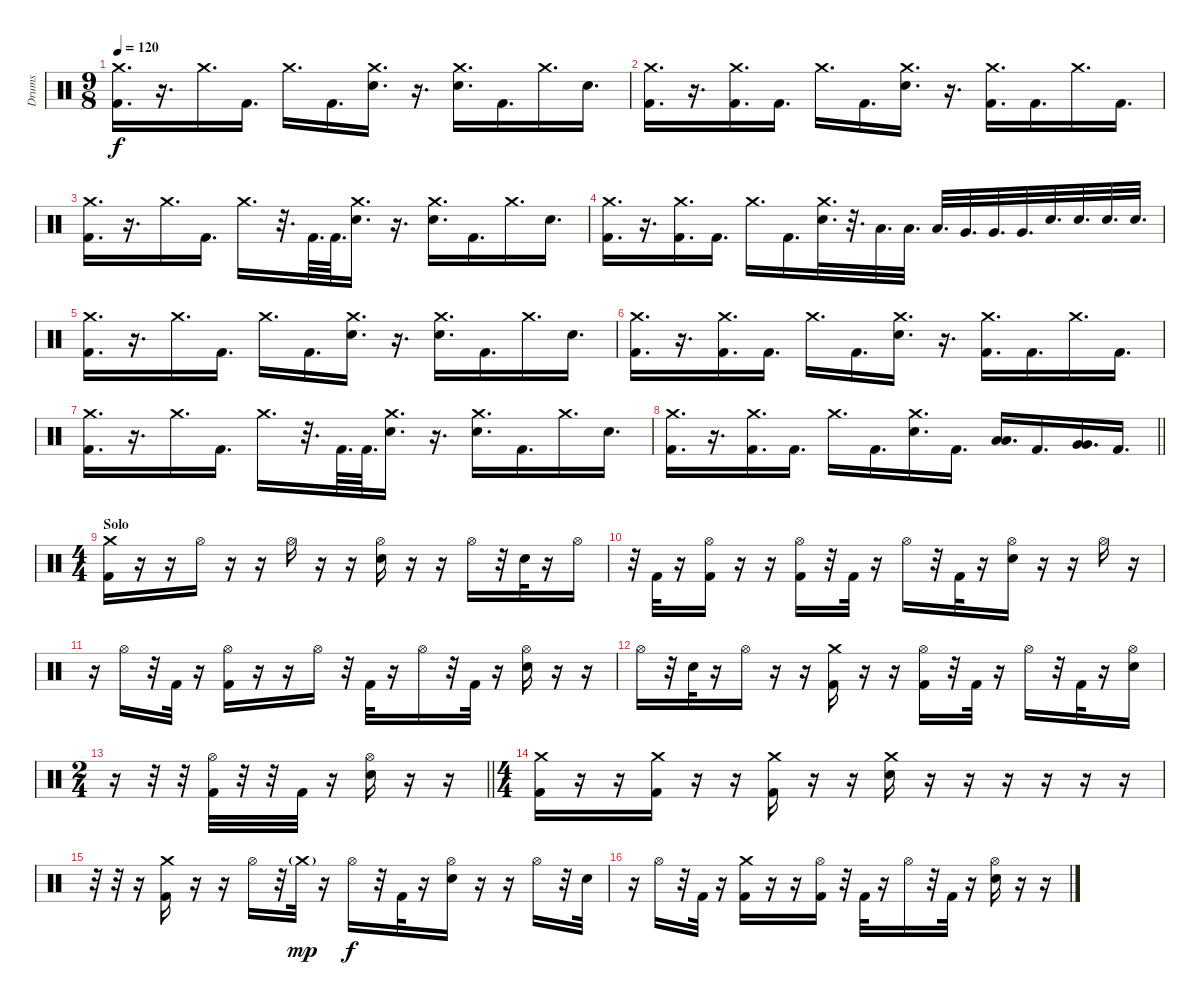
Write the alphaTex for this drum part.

\track ("Drums" "Drums") {instrument percussion}
\staff {score}
\articulation defaults
\ts (9 8)
\section ("" "")
\tempo 120
\clef neutral
\ks c
("Crash medium (hit)" "Kick (hit) 2").16{d dy f} r.16{d} "Crash medium (hit)".16{d} "Kick (hit) 2".16{d} "Crash medium (hit)".16{d} "Kick (hit) 2".16{d} ("Crash medium (hit)" "Electric Snare (hit)").16{d} r.16{d} ("Crash medium (hit)" "Electric Snare (hit)").16{d} "Kick (hit) 2".16{d} "Crash medium (hit)".16{d} "Electric Snare (hit)".16{d} |
("Crash medium (hit)" "Kick (hit) 2").16{d} r.16{d} ("Crash medium (hit)" "Kick (hit) 2").16{d} "Kick (hit) 2".16{d} "Crash medium (hit)".16{d} "Kick (hit) 2".16{d} ("Crash medium (hit)" "Electric Snare (hit)").16{d} r.16{d} ("Crash medium (hit)" "Kick (hit) 2").16{d} "Kick (hit) 2".16{d} "Crash medium (hit)".16{d} "Kick (hit) 2".16{d} |
("Crash medium (hit)" "Kick (hit) 2").16{d} r.16{d} "Crash medium (hit)".16{d} "Kick (hit) 2".16{d} "Crash medium (hit)".16{d} r.32{d} "Kick (hit) 2".64{d} "Kick (hit) 2".64{d} ("Crash medium (hit)" "Electric Snare (hit)").16{d} r.16{d} ("Crash medium (hit)" "Electric Snare (hit)").16{d} "Kick (hit) 2".16{d} "Crash medium (hit)".16{d} "Electric Snare (hit)".16{d} |
("Crash medium (hit)" "Kick (hit) 2").16{d} r.16{d} ("Crash medium (hit)" "Kick (hit) 2").16{d} "Kick (hit) 2".16{d} "Crash medium (hit)".16{d} "Kick (hit) 2".16{d} ("Crash medium (hit)" "Electric Snare (hit)").32{d} r.32{d} "Low Tom (hit)".32{d} "Low Tom (hit)".32{d} "Low Tom (hit)".32{d} "Very Low Tom (hit)".32{d} "Very Low Tom (hit)".32{d} "Very Low Tom (hit)".32{d} "Electric Snare (hit)".32{d} "Electric Snare (hit)".32{d} "Electric Snare (hit)".32{d} "Electric Snare (hit)".32{d} |
("Crash medium (hit)" "Kick (hit) 2").16{d} r.16{d} "Crash medium (hit)".16{d} "Kick (hit) 2".16{d} "Crash medium (hit)".16{d} "Kick (hit) 2".16{d} ("Crash medium (hit)" "Electric Snare (hit)").16{d} r.16{d} ("Crash medium (hit)" "Electric Snare (hit)").16{d} "Kick (hit) 2".16{d} "Crash medium (hit)".16{d} "Electric Snare (hit)".16{d} |
("Crash medium (hit)" "Kick (hit) 2").16{d} r.16{d} ("Crash medium (hit)" "Kick (hit) 2").16{d} "Kick (hit) 2".16{d} "Crash medium (hit)".16{d} "Kick (hit) 2".16{d} ("Crash medium (hit)" "Electric Snare (hit)").16{d} r.16{d} ("Crash medium (hit)" "Kick (hit) 2").16{d} "Kick (hit) 2".16{d} "Crash medium (hit)".16{d} "Kick (hit) 2".16{d} |
("Crash medium (hit)" "Kick (hit) 2").16{d} r.16{d} "Crash medium (hit)".16{d} "Kick (hit) 2".16{d} "Crash medium (hit)".16{d} r.32{d} "Kick (hit) 2".64{d} "Kick (hit) 2".64{d} ("Crash medium (hit)" "Electric Snare (hit)").16{d} r.16{d} ("Crash medium (hit)" "Electric Snare (hit)").16{d} "Kick (hit) 2".16{d} "Crash medium (hit)".16{d} "Electric Snare (hit)".16{d} |
\barLineRight lightlight
("Crash medium (hit)" "Kick (hit) 2").16{d} r.16{d} ("Crash medium (hit)" "Kick (hit) 2").16{d} "Kick (hit) 2".16{d} "Crash medium (hit)".16{d} "Kick (hit) 2".16{d} ("Crash medium (hit)" "Electric Snare (hit)").16{d} "Kick (hit) 2".16{d} ("Low Tom (hit)" "Low Tom (hit)").16{d} "Kick (hit) 2".16{d} ("Very Low Tom (hit)" "Very Low Tom (hit)").16{d} "Kick (hit) 2".16{d} |
\ts (4 4)
\section ("" "Solo")
("Crash medium (hit)" "Kick (hit) 2").16 r.16 r.16 "Hi-Hat (open)".16 r.16 r.16 "Hi-Hat (open)".16 r.16 r.16 ("Hi-Hat (open)" "Electric Snare (hit)").16 r.16 r.16 "Hi-Hat (open)".16 r.32 "Electric Snare (hit)".32 r.16 "Hi-Hat (open)".16 |
r.32 "Kick (hit) 2".32 r.16 ("Hi-Hat (open)" "Kick (hit) 2").16 r.16 r.16 ("Hi-Hat (open)" "Kick (hit) 2").16 r.32 "Kick (hit) 2".32 r.16 "Hi-Hat (open)".16 r.32 "Kick (hit) 2".32 r.16 ("Hi-Hat (open)" "Electric Snare (hit)").16 r.16 r.16 "Hi-Hat (open)".16 r.16 |
r.16 "Hi-Hat (open)".16 r.32 "Kick (hit) 2".32 r.16 ("Hi-Hat (open)" "Kick (hit) 2").16 r.16 r.16 "Hi-Hat (open)".16 r.32 "Kick (hit) 2".32 r.16 "Hi-Hat (open)".16 r.32 "Kick (hit) 2".32 r.16 ("Hi-Hat (open)" "Electric Snare (hit)").16 r.16 r.16 |
"Hi-Hat (open)".16 r.32 "Electric Snare (hit)".32 r.16 "Hi-Hat (open)".16 r.16 r.16 ("Crash medium (hit)" "Kick (hit) 2").16 r.16 r.16 ("Hi-Hat (open)" "Kick (hit) 2").16 r.32 "Kick (hit) 2".32 r.16 "Hi-Hat (open)".16 r.32 "Kick (hit) 2".32 r.16 ("Hi-Hat (open)" "Electric Snare (hit)").16 |
\ts (2 4)
\barLineRight lightlight
r.16 r.32 r.32 ("Hi-Hat (open)" "Kick (hit) 2").32 r.32 r.32 "Kick (hit) 2".32 r.16 ("Hi-Hat (open)" "Electric Snare (hit)").16 r.16 r.16 |
\ts (4 4)
("Crash medium (hit)" "Kick (hit) 2").16 r.16 r.16 ("Crash medium (hit)" "Kick (hit) 2").16 r.16 r.16 ("Crash medium (hit)" "Kick (hit) 2").16 r.16 r.16 ("Crash medium (hit)" "Electric Snare (hit)").16 r.16 r.16 r.16 r.16 r.16 r.16 |
r.32 r.32 r.16 ("Crash medium (hit)" "Kick (hit) 2").16 r.16 r.16 "Hi-Hat (open)".16 r.32 "Crash medium (hit)"{g}.32{dy mp} r.16 "Hi-Hat (open)".16{dy f} r.32 "Kick (hit) 2".32 r.16 ("Hi-Hat (open)" "Electric Snare (hit)").16 r.16 r.16 "Hi-Hat (open)".16 r.32 "Electric Snare (hit)".32 |
r.16 "Hi-Hat (open)".16 r.32 "Kick (hit) 2".32 r.16 ("Crash medium (hit)" "Kick (hit) 2").16 r.16 r.16 ("Hi-Hat (open)" "Kick (hit) 2").16 r.32 "Kick (hit) 2".32 r.16 "Hi-Hat (open)".16 r.32 "Kick (hit) 2".32 r.16 ("Hi-Hat (open)" "Electric Snare (hit)").16 r.16 r.16
